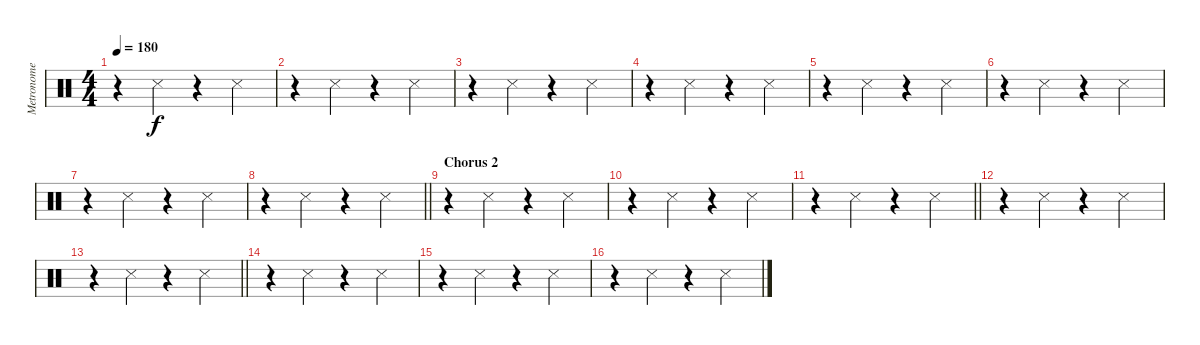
\track ("Metronome" "Metronome") {instrument percussion}
\staff {score}
\articulation defaults
\ts (4 4)
\tempo 180
\clef neutral
\ks c
r.4{dy f} "Metronome (hit)".4 r.4 "Metronome (hit)".4 |
r.4 "Metronome (hit)".4 r.4 "Metronome (hit)".4 |
r.4 "Metronome (hit)".4 r.4 "Metronome (hit)".4 |
r.4 "Metronome (hit)".4 r.4 "Metronome (hit)".4 |
r.4 "Metronome (hit)".4 r.4 "Metronome (hit)".4 |
r.4 "Metronome (hit)".4 r.4 "Metronome (hit)".4 |
r.4 "Metronome (hit)".4 r.4 "Metronome (hit)".4 |
\barLineRight lightlight
r.4 "Metronome (hit)".4 r.4 "Metronome (hit)".4 |
\section ("" "Chorus 2")
r.4 "Metronome (hit)".4 r.4 "Metronome (hit)".4 |
r.4 "Metronome (hit)".4 r.4 "Metronome (hit)".4 |
\barLineRight lightlight
r.4 "Metronome (hit)".4 r.4 "Metronome (hit)".4 |
r.4 "Metronome (hit)".4 r.4 "Metronome (hit)".4 |
\barLineRight lightlight
r.4 "Metronome (hit)".4 r.4 "Metronome (hit)".4 |
r.4 "Metronome (hit)".4 r.4 "Metronome (hit)".4 |
r.4 "Metronome (hit)".4 r.4 "Metronome (hit)".4 |
r.4 "Metronome (hit)".4 r.4 "Metronome (hit)".4
